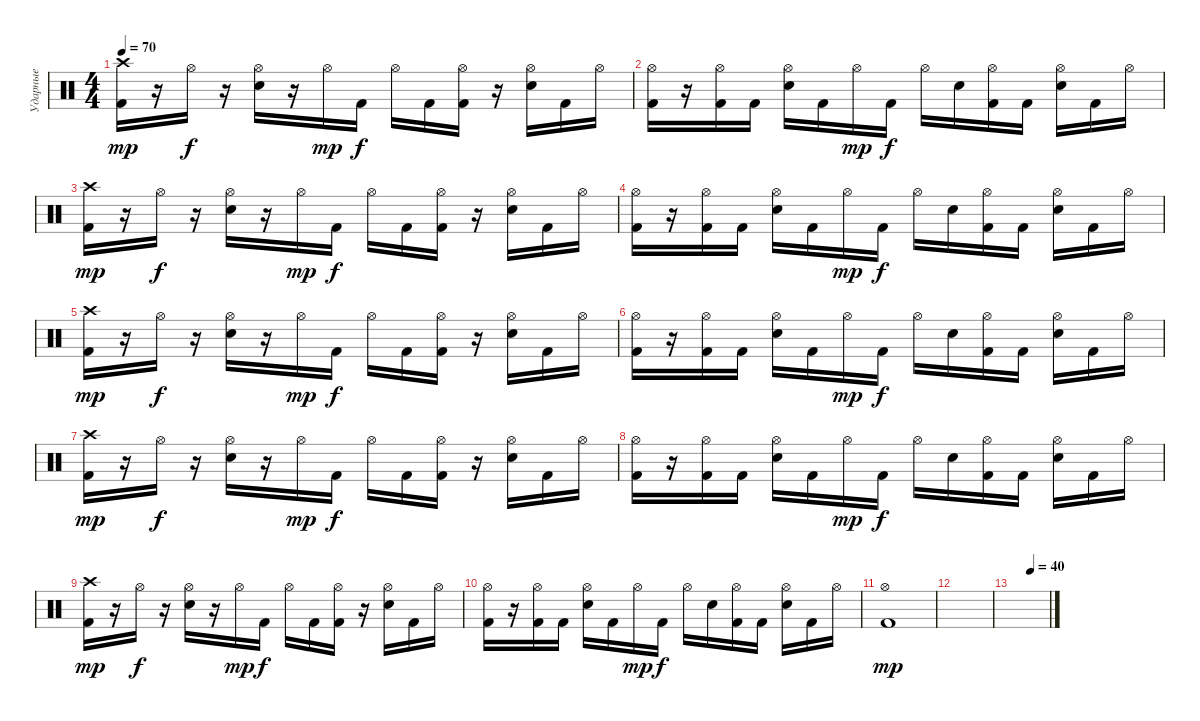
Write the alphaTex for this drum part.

\track ("Ударные" "Ударные") {instrument percussion}
\staff {score}
\articulation defaults
\ts (4 4)
\tempo 70
\clef neutral
\ks c
("Crash high (hit)" "Kick (hit) 2").16{dy mp} r.16 "Hi-Hat (open)".16{dy f} r.16 ("Hi-Hat (open)" "Electric Snare (hit)").16 r.16 "Hi-Hat (open)".16{dy mp} "Kick (hit) 2".16{dy f} "Hi-Hat (open)".16 "Kick (hit) 2".16 ("Hi-Hat (open)" "Kick (hit) 2").16 r.16 ("Hi-Hat (open)" "Electric Snare (hit)").16 "Kick (hit) 2".16 "Hi-Hat (open)".16 |
("Hi-Hat (open)" "Kick (hit) 2").16 r.16 ("Hi-Hat (open)" "Kick (hit) 2").16 "Kick (hit) 2".16 ("Hi-Hat (open)" "Electric Snare (hit)").16 "Kick (hit) 2".16 "Hi-Hat (open)".16{dy mp} "Kick (hit) 2".16{dy f} "Hi-Hat (open)".16 "Electric Snare (hit)".16 ("Hi-Hat (open)" "Kick (hit) 2").16 "Kick (hit) 2".16 ("Hi-Hat (open)" "Electric Snare (hit)").16 "Kick (hit) 2".16 "Hi-Hat (open)".16 |
("Crash high (hit)" "Kick (hit) 2").16{dy mp} r.16 "Hi-Hat (open)".16{dy f} r.16 ("Hi-Hat (open)" "Electric Snare (hit)").16 r.16 "Hi-Hat (open)".16{dy mp} "Kick (hit) 2".16{dy f} "Hi-Hat (open)".16 "Kick (hit) 2".16 ("Hi-Hat (open)" "Kick (hit) 2").16 r.16 ("Hi-Hat (open)" "Electric Snare (hit)").16 "Kick (hit) 2".16 "Hi-Hat (open)".16 |
("Hi-Hat (open)" "Kick (hit) 2").16 r.16 ("Hi-Hat (open)" "Kick (hit) 2").16 "Kick (hit) 2".16 ("Hi-Hat (open)" "Electric Snare (hit)").16 "Kick (hit) 2".16 "Hi-Hat (open)".16{dy mp} "Kick (hit) 2".16{dy f} "Hi-Hat (open)".16 "Electric Snare (hit)".16 ("Hi-Hat (open)" "Kick (hit) 2").16 "Kick (hit) 2".16 ("Hi-Hat (open)" "Electric Snare (hit)").16 "Kick (hit) 2".16 "Hi-Hat (open)".16 |
("Crash high (hit)" "Kick (hit) 2").16{dy mp} r.16 "Hi-Hat (open)".16{dy f} r.16 ("Hi-Hat (open)" "Electric Snare (hit)").16 r.16 "Hi-Hat (open)".16{dy mp} "Kick (hit) 2".16{dy f} "Hi-Hat (open)".16 "Kick (hit) 2".16 ("Hi-Hat (open)" "Kick (hit) 2").16 r.16 ("Hi-Hat (open)" "Electric Snare (hit)").16 "Kick (hit) 2".16 "Hi-Hat (open)".16 |
("Hi-Hat (open)" "Kick (hit) 2").16 r.16 ("Hi-Hat (open)" "Kick (hit) 2").16 "Kick (hit) 2".16 ("Hi-Hat (open)" "Electric Snare (hit)").16 "Kick (hit) 2".16 "Hi-Hat (open)".16{dy mp} "Kick (hit) 2".16{dy f} "Hi-Hat (open)".16 "Electric Snare (hit)".16 ("Hi-Hat (open)" "Kick (hit) 2").16 "Kick (hit) 2".16 ("Hi-Hat (open)" "Electric Snare (hit)").16 "Kick (hit) 2".16 "Hi-Hat (open)".16 |
("Crash high (hit)" "Kick (hit) 2").16{dy mp} r.16 "Hi-Hat (open)".16{dy f} r.16 ("Hi-Hat (open)" "Electric Snare (hit)").16 r.16 "Hi-Hat (open)".16{dy mp} "Kick (hit) 2".16{dy f} "Hi-Hat (open)".16 "Kick (hit) 2".16 ("Hi-Hat (open)" "Kick (hit) 2").16 r.16 ("Hi-Hat (open)" "Electric Snare (hit)").16 "Kick (hit) 2".16 "Hi-Hat (open)".16 |
("Hi-Hat (open)" "Kick (hit) 2").16 r.16 ("Hi-Hat (open)" "Kick (hit) 2").16 "Kick (hit) 2".16 ("Hi-Hat (open)" "Electric Snare (hit)").16 "Kick (hit) 2".16 "Hi-Hat (open)".16{dy mp} "Kick (hit) 2".16{dy f} "Hi-Hat (open)".16 "Electric Snare (hit)".16 ("Hi-Hat (open)" "Kick (hit) 2").16 "Kick (hit) 2".16 ("Hi-Hat (open)" "Electric Snare (hit)").16 "Kick (hit) 2".16 "Hi-Hat (open)".16 |
("Crash high (hit)" "Kick (hit) 2").16{dy mp} r.16 "Hi-Hat (open)".16{dy f} r.16 ("Hi-Hat (open)" "Electric Snare (hit)").16 r.16 "Hi-Hat (open)".16{dy mp} "Kick (hit) 2".16{dy f} "Hi-Hat (open)".16 "Kick (hit) 2".16 ("Hi-Hat (open)" "Kick (hit) 2").16 r.16 ("Hi-Hat (open)" "Electric Snare (hit)").16 "Kick (hit) 2".16 "Hi-Hat (open)".16 |
("Hi-Hat (open)" "Kick (hit) 2").16 r.16 ("Hi-Hat (open)" "Kick (hit) 2").16 "Kick (hit) 2".16 ("Hi-Hat (open)" "Electric Snare (hit)").16 "Kick (hit) 2".16 "Hi-Hat (open)".16{dy mp} "Kick (hit) 2".16{dy f} "Hi-Hat (open)".16 "Electric Snare (hit)".16 ("Hi-Hat (open)" "Kick (hit) 2").16 "Kick (hit) 2".16 ("Hi-Hat (open)" "Electric Snare (hit)").16 "Kick (hit) 2".16 "Hi-Hat (open)".16 |
("Hi-Hat (open)" "Kick (hit) 2").1{dy mp} |
|
\tempo (40 0.5)
